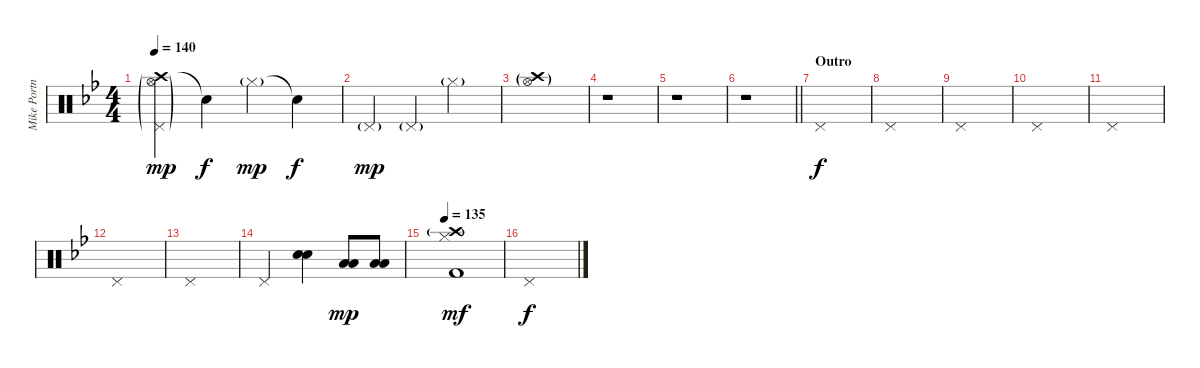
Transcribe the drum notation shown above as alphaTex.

\track ("Mike Portnoy" "Mike Portn") {instrument percussion}
\staff {score}
\articulation defaults
\ts (4 4)
\tempo 140
\clef neutral
\ks bb
("Crash high (hit)"{g} "Hi-Hat (open)"{g} "Pedal Hi-Hat (hit)"{g}).4{dy mp} "Snare (hit)"{t}.4{dy f} "Hi-Hat (closed)"{g}.4{dy mp} "Snare (hit)"{t}.4{dy f} |
"Pedal Hi-Hat (hit)"{g}.4{dy mp} "Pedal Hi-Hat (hit)"{g}.4 "Hi-Hat (closed)"{g}.2 |
("Crash high (hit)"{g} "Hi-Hat (open)"{g}).1 |
r.1 |
r.1 |
\barLineRight lightlight
r.1 |
\section ("" "Outro")
"Pedal Hi-Hat (hit)".1{dy f volume 8} |
"Pedal Hi-Hat (hit)".1 |
"Pedal Hi-Hat (hit)".1 |
"Pedal Hi-Hat (hit)".1 |
"Pedal Hi-Hat (hit)".1 |
"Pedal Hi-Hat (hit)".1 |
"Pedal Hi-Hat (hit)".1 |
"Pedal Hi-Hat (hit)".2 ("Electric Snare (hit)" "Electric Snare (hit)").4{bd 60} ("Low Tom (hit)" "Low Tom (hit)").8{bd 60 dy mp} ("Low Floor Tom (hit)" "Low Floor Tom (hit)").8{bd 60} |
\tempo 135
("Kick (hit) 2" "Crash high (hit)"{g} "Hi-Hat (closed)").1{dy mf} |
"Pedal Hi-Hat (hit)".1{dy f}
